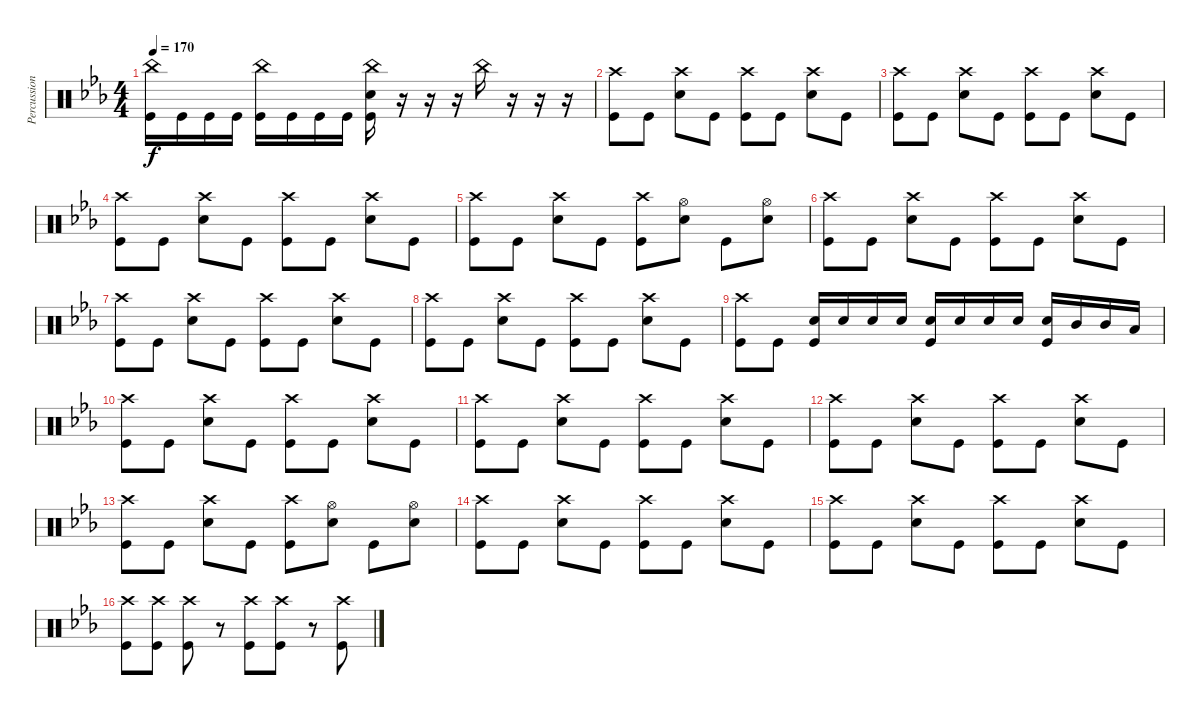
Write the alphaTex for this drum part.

\track ("Percussion" "Percussion") {instrument percussion}
\staff {score}
\articulation defaults
\ts (4 4)
\tempo 170
\clef neutral
\ks cminor
("China (hit)" "Kick (hit)").16{dy f} "Kick (hit)".16 "Kick (hit)".16 "Kick (hit)".16 ("China (hit)" "Kick (hit)").16 "Kick (hit)".16 "Kick (hit)".16 "Kick (hit)".16 ("China (hit)" "Snare (hit) 2" "Kick (hit)").16 r.16 r.16 r.16 "China (hit)".16 r.16 r.16 r.16 |
("Crash high (hit)" "Kick (hit)").8 "Kick (hit)".8 ("Crash high (hit)" "Snare (hit) 2").8 "Kick (hit)".8 ("Crash high (hit)" "Kick (hit)").8 "Kick (hit)".8 ("Crash high (hit)" "Snare (hit) 2").8 "Kick (hit)".8 |
("Crash high (hit)" "Kick (hit)").8 "Kick (hit)".8 ("Crash high (hit)" "Snare (hit) 2").8 "Kick (hit)".8 ("Crash high (hit)" "Kick (hit)").8 "Kick (hit)".8 ("Crash high (hit)" "Snare (hit) 2").8 "Kick (hit)".8 |
("Crash high (hit)" "Kick (hit)").8 "Kick (hit)".8 ("Crash high (hit)" "Snare (hit) 2").8 "Kick (hit)".8 ("Crash high (hit)" "Kick (hit)").8 "Kick (hit)".8 ("Crash high (hit)" "Snare (hit) 2").8 "Kick (hit)".8 |
("Crash high (hit)" "Kick (hit)").8 "Kick (hit)".8 ("Crash high (hit)" "Snare (hit) 2").8 "Kick (hit)".8 ("Crash high (hit)" "Kick (hit)").8 ("Hi-Hat (open)" "Snare (hit) 2").8 "Kick (hit)".8 ("Hi-Hat (open)" "Snare (hit) 2").8 |
("Crash high (hit)" "Kick (hit)").8 "Kick (hit)".8 ("Crash high (hit)" "Snare (hit) 2").8 "Kick (hit)".8 ("Crash high (hit)" "Kick (hit)").8 "Kick (hit)".8 ("Crash high (hit)" "Snare (hit) 2").8 "Kick (hit)".8 |
("Crash high (hit)" "Kick (hit)").8 "Kick (hit)".8 ("Crash high (hit)" "Snare (hit) 2").8 "Kick (hit)".8 ("Crash high (hit)" "Kick (hit)").8 "Kick (hit)".8 ("Crash high (hit)" "Snare (hit) 2").8 "Kick (hit)".8 |
("Crash high (hit)" "Kick (hit)").8 "Kick (hit)".8 ("Crash high (hit)" "Snare (hit) 2").8 "Kick (hit)".8 ("Crash high (hit)" "Kick (hit)").8 "Kick (hit)".8 ("Crash high (hit)" "Snare (hit) 2").8 "Kick (hit)".8 |
("Crash high (hit)" "Kick (hit)").8 "Kick (hit)".8 ("Snare (hit) 2" "Kick (hit)").16{volume 6} "Snare (hit) 2".16 "Snare (hit) 2".16 "Snare (hit) 2".16 ("Snare (hit) 2" "Kick (hit)").16{volume 13} "Snare (hit) 2".16{volume 3} "Snare (hit) 2".16 "Snare (hit) 2".16{volume 13} ("Snare (hit) 2" "Kick (hit)").16{volume 10} "Mid Tom (hit)".16 "Mid Tom (hit)".16 "Low Tom (hit)".16 |
("Crash high (hit)" "Kick (hit)").8{volume 13} "Kick (hit)".8 ("Crash high (hit)" "Snare (hit) 2").8 "Kick (hit)".8 ("Crash high (hit)" "Kick (hit)").8 "Kick (hit)".8 ("Crash high (hit)" "Snare (hit) 2").8 "Kick (hit)".8 |
("Crash high (hit)" "Kick (hit)").8 "Kick (hit)".8 ("Crash high (hit)" "Snare (hit) 2").8 "Kick (hit)".8 ("Crash high (hit)" "Kick (hit)").8 "Kick (hit)".8 ("Crash high (hit)" "Snare (hit) 2").8 "Kick (hit)".8 |
("Crash high (hit)" "Kick (hit)").8 "Kick (hit)".8 ("Crash high (hit)" "Snare (hit) 2").8 "Kick (hit)".8 ("Crash high (hit)" "Kick (hit)").8 "Kick (hit)".8 ("Crash high (hit)" "Snare (hit) 2").8 "Kick (hit)".8 |
("Crash high (hit)" "Kick (hit)").8 "Kick (hit)".8 ("Crash high (hit)" "Snare (hit) 2").8 "Kick (hit)".8 ("Crash high (hit)" "Kick (hit)").8 ("Hi-Hat (open)" "Snare (hit) 2").8 "Kick (hit)".8 ("Hi-Hat (open)" "Snare (hit) 2").8 |
("Crash high (hit)" "Kick (hit)").8 "Kick (hit)".8 ("Crash high (hit)" "Snare (hit) 2").8 "Kick (hit)".8 ("Crash high (hit)" "Kick (hit)").8 "Kick (hit)".8 ("Crash high (hit)" "Snare (hit) 2").8 "Kick (hit)".8 |
("Crash high (hit)" "Kick (hit)").8 "Kick (hit)".8 ("Crash high (hit)" "Snare (hit) 2").8 "Kick (hit)".8 ("Crash high (hit)" "Kick (hit)").8 "Kick (hit)".8 ("Crash high (hit)" "Snare (hit) 2").8 "Kick (hit)".8 |
("Crash high (hit)" "Kick (hit)").8 ("Crash high (hit)" "Kick (hit)").8 ("Crash high (hit)" "Kick (hit)").8 r.8{volume 3} ("Crash high (hit)" "Kick (hit)").8{volume 11} ("Crash high (hit)" "Kick (hit)").8 r.8{volume 3} ("Crash high (hit)" "Kick (hit)").8{volume 11}
